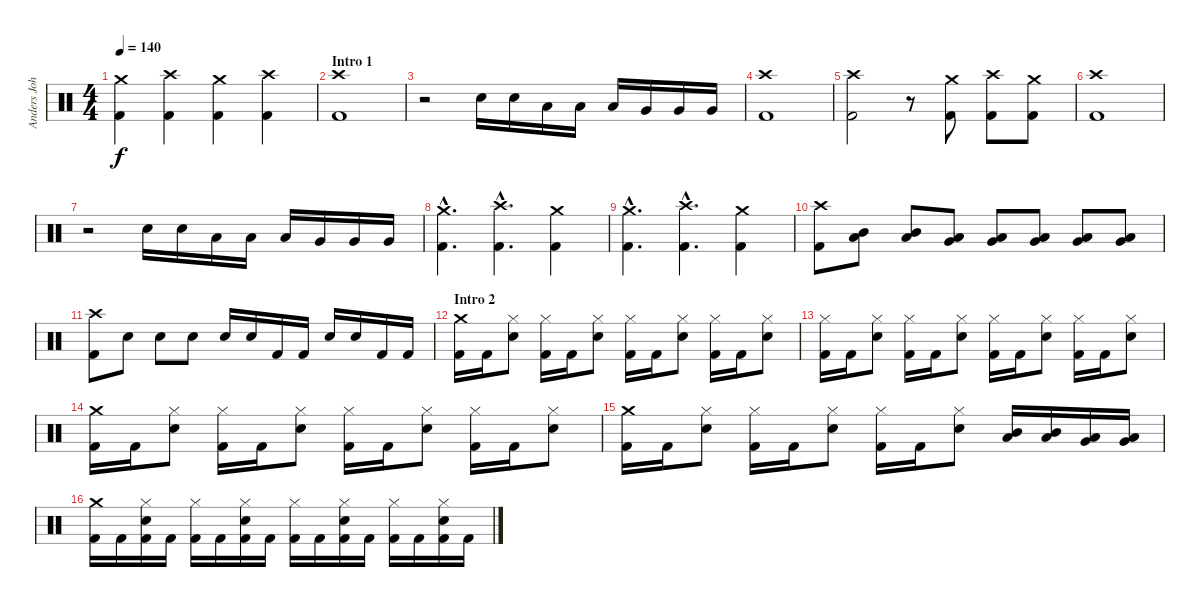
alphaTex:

\track ("Anders Johansson :: Drums" "Anders Joh") {instrument percussion}
\staff {score}
\articulation defaults
\ts (4 4)
\tempo 140
\clef neutral
\ks c
("Crash medium (hit)" "Kick (hit) 2").4{dy f} ("Crash high (hit)" "Kick (hit) 2").4 ("Crash medium (hit)" "Kick (hit) 2").4 ("Crash high (hit)" "Kick (hit) 2").4 |
\section ("" "Intro 1")
("Crash high (hit)" "Kick (hit) 2").1 |
r.2 "Snare (hit) 2".16 "Snare (hit) 2".16 "Low Tom (hit)".16 "Low Tom (hit)".16 "Low Tom (hit)".16 "Very Low Tom (hit)".16 "Very Low Tom (hit)".16 "Very Low Tom (hit)".16 |
("Crash high (hit)" "Kick (hit) 2").1 |
("Crash high (hit)" "Kick (hit) 2").2 r.8 ("Crash medium (hit)" "Kick (hit) 2").8 ("Crash high (hit)" "Kick (hit) 2").8 ("Crash medium (hit)" "Kick (hit) 2").8 |
("Crash high (hit)" "Kick (hit) 2").1 |
r.2 "Snare (hit) 2".16 "Snare (hit) 2".16 "Low Tom (hit)".16 "Low Tom (hit)".16 "Low Tom (hit)".16 "Very Low Tom (hit)".16 "Very Low Tom (hit)".16 "Very Low Tom (hit)".16 |
("Crash medium (hit)"{hac} "Kick (hit) 2"{hac}).4{d} ("Crash high (hit)"{hac} "Kick (hit) 2"{hac}).4{d} ("Crash medium (hit)" "Kick (hit) 2").4 |
("Crash medium (hit)"{hac} "Kick (hit) 2"{hac}).4{d} ("Crash high (hit)"{hac} "Kick (hit) 2"{hac}).4{d} ("Crash medium (hit)" "Kick (hit) 2").4 |
("Crash high (hit)" "Kick (hit) 2").8 ("Mid Tom (hit)" "Low Tom (hit)").8 ("Mid Tom (hit)" "Low Tom (hit)").8 ("Low Tom (hit)" "Very Low Tom (hit)").8 ("Low Tom (hit)" "Very Low Tom (hit)").8 ("Low Tom (hit)" "Very Low Tom (hit)").8 ("Low Tom (hit)" "Very Low Tom (hit)").8 ("Low Tom (hit)" "Very Low Tom (hit)").8 |
("Crash high (hit)" "Kick (hit) 2").8 "Snare (hit) 2".8 "Snare (hit) 2".8 "Snare (hit) 2".8 "Snare (hit) 2".16 "Snare (hit) 2".16 "Kick (hit) 2".16 "Kick (hit) 2".16 "Snare (hit) 2".16 "Snare (hit) 2".16 "Kick (hit) 2".16 "Kick (hit) 2".16 |
\section ("" "Intro 2")
("Crash medium (hit)" "Kick (hit) 2").16 "Kick (hit) 2".16 ("Hi-Hat (closed)" "Snare (hit) 2").8 ("Hi-Hat (closed)" "Kick (hit) 2").16 "Kick (hit) 2".16 ("Hi-Hat (closed)" "Snare (hit) 2").8 ("Hi-Hat (closed)" "Kick (hit) 2").16 "Kick (hit) 2".16 ("Hi-Hat (closed)" "Snare (hit) 2").8 ("Hi-Hat (closed)" "Kick (hit) 2").16 "Kick (hit) 2".16 ("Hi-Hat (closed)" "Snare (hit) 2").8 |
("Hi-Hat (closed)" "Kick (hit) 2").16 "Kick (hit) 2".16 ("Hi-Hat (closed)" "Snare (hit) 2").8 ("Hi-Hat (closed)" "Kick (hit) 2").16 "Kick (hit) 2".16 ("Hi-Hat (closed)" "Snare (hit) 2").8 ("Hi-Hat (closed)" "Kick (hit) 2").16 "Kick (hit) 2".16 ("Hi-Hat (closed)" "Snare (hit) 2").8 ("Hi-Hat (closed)" "Kick (hit) 2").16 "Kick (hit) 2".16 ("Hi-Hat (closed)" "Snare (hit) 2").8 |
("Crash medium (hit)" "Kick (hit) 2").16 "Kick (hit) 2".16 ("Hi-Hat (closed)" "Snare (hit) 2").8 ("Hi-Hat (closed)" "Kick (hit) 2").16 "Kick (hit) 2".16 ("Hi-Hat (closed)" "Snare (hit) 2").8 ("Hi-Hat (closed)" "Kick (hit) 2").16 "Kick (hit) 2".16 ("Hi-Hat (closed)" "Snare (hit) 2").8 ("Hi-Hat (closed)" "Kick (hit) 2").16 "Kick (hit) 2".16 ("Hi-Hat (closed)" "Snare (hit) 2").8 |
("Crash medium (hit)" "Kick (hit) 2").16 "Kick (hit) 2".16 ("Hi-Hat (closed)" "Snare (hit) 2").8 ("Hi-Hat (closed)" "Kick (hit) 2").16 "Kick (hit) 2".16 ("Hi-Hat (closed)" "Snare (hit) 2").8 ("Hi-Hat (closed)" "Kick (hit) 2").16 "Kick (hit) 2".16 ("Hi-Hat (closed)" "Snare (hit) 2").8 ("Mid Tom (hit)" "Low Tom (hit)").16 ("Mid Tom (hit)" "Low Tom (hit)").16 ("Low Tom (hit)" "Very Low Tom (hit)").16 ("Low Tom (hit)" "Very Low Tom (hit)").16 |
("Crash medium (hit)" "Kick (hit) 2").16 "Kick (hit) 2".16 ("Hi-Hat (closed)" "Snare (hit) 2" "Kick (hit) 2").16 "Kick (hit) 2".16 ("Hi-Hat (closed)" "Kick (hit) 2").16 "Kick (hit) 2".16 ("Hi-Hat (closed)" "Snare (hit) 2" "Kick (hit) 2").16 "Kick (hit) 2".16 ("Hi-Hat (closed)" "Kick (hit) 2").16 "Kick (hit) 2".16 ("Hi-Hat (closed)" "Snare (hit) 2" "Kick (hit) 2").16 "Kick (hit) 2".16 ("Hi-Hat (closed)" "Kick (hit) 2").16 "Kick (hit) 2".16 ("Hi-Hat (closed)" "Snare (hit) 2" "Kick (hit) 2").16 "Kick (hit) 2".16
